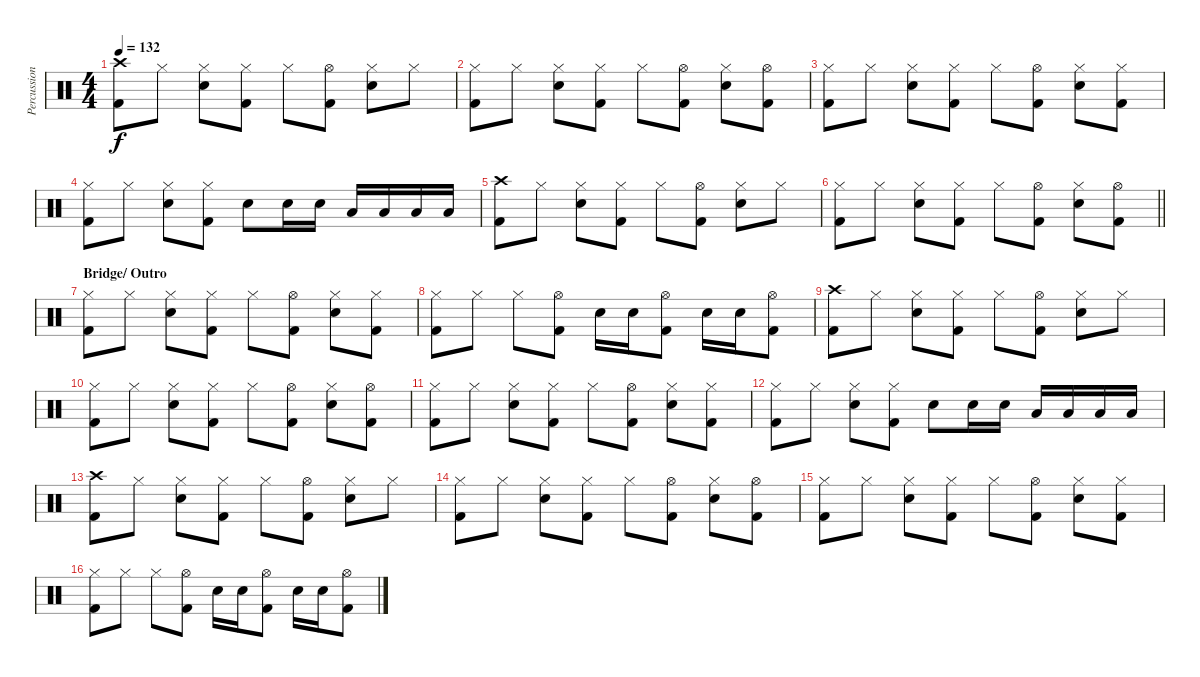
\track ("Percussioni" "Percussion") {instrument percussion}
\staff {score}
\articulation defaults
\ts (4 4)
\tempo 132
\clef neutral
\ks c
("Crash high (hit)" "Kick (hit) 2").8{dy f} "Hi-Hat (closed)".8 ("Hi-Hat (closed)" "Snare (hit) 2").8 ("Hi-Hat (closed)" "Kick (hit) 2").8 "Hi-Hat (closed)".8 ("Hi-Hat (open)" "Kick (hit) 2").8 ("Hi-Hat (closed)" "Snare (hit) 2").8 "Hi-Hat (closed)".8 |
("Hi-Hat (closed)" "Kick (hit) 2").8 "Hi-Hat (closed)".8 ("Hi-Hat (closed)" "Snare (hit) 2").8 ("Hi-Hat (closed)" "Kick (hit) 2").8 "Hi-Hat (closed)".8 ("Hi-Hat (open)" "Kick (hit) 2").8 ("Hi-Hat (closed)" "Snare (hit) 2").8 ("Hi-Hat (open)" "Kick (hit) 2").8 |
("Hi-Hat (closed)" "Kick (hit) 2").8 "Hi-Hat (closed)".8 ("Hi-Hat (closed)" "Snare (hit) 2").8 ("Hi-Hat (closed)" "Kick (hit) 2").8 "Hi-Hat (closed)".8 ("Hi-Hat (open)" "Kick (hit) 2").8 ("Hi-Hat (closed)" "Snare (hit) 2").8 ("Hi-Hat (closed)" "Kick (hit) 2").8 |
("Hi-Hat (closed)" "Kick (hit) 2").8 "Hi-Hat (closed)".8 ("Hi-Hat (closed)" "Snare (hit) 2").8 ("Hi-Hat (closed)" "Kick (hit) 2").8 "Snare (hit) 2".8 "Snare (hit) 2".16 "Snare (hit) 2".16 "Low Floor Tom (hit)".16 "Low Floor Tom (hit)".16 "Low Floor Tom (hit)".16 "Low Floor Tom (hit)".16 |
("Crash high (hit)" "Kick (hit) 2").8 "Hi-Hat (closed)".8 ("Hi-Hat (closed)" "Snare (hit) 2").8 ("Hi-Hat (closed)" "Kick (hit) 2").8 "Hi-Hat (closed)".8 ("Hi-Hat (open)" "Kick (hit) 2").8 ("Hi-Hat (closed)" "Snare (hit) 2").8 "Hi-Hat (closed)".8 |
\barLineRight lightlight
("Hi-Hat (closed)" "Kick (hit) 2").8 "Hi-Hat (closed)".8 ("Hi-Hat (closed)" "Snare (hit) 2").8 ("Hi-Hat (closed)" "Kick (hit) 2").8 "Hi-Hat (closed)".8 ("Hi-Hat (open)" "Kick (hit) 2").8 ("Hi-Hat (closed)" "Snare (hit) 2").8 ("Hi-Hat (open)" "Kick (hit) 2").8 |
\section ("" "Bridge/ Outro")
("Hi-Hat (closed)" "Kick (hit) 2").8 "Hi-Hat (closed)".8 ("Hi-Hat (closed)" "Snare (hit) 2").8 ("Hi-Hat (closed)" "Kick (hit) 2").8 "Hi-Hat (closed)".8 ("Hi-Hat (open)" "Kick (hit) 2").8 ("Hi-Hat (closed)" "Snare (hit) 2").8 ("Hi-Hat (closed)" "Kick (hit) 2").8 |
("Hi-Hat (closed)" "Kick (hit) 2").8 "Hi-Hat (closed)".8 "Hi-Hat (closed)".8 ("Hi-Hat (open)" "Kick (hit) 2").8 "Snare (hit) 2".16 "Snare (hit) 2".16 ("Hi-Hat (open)" "Kick (hit) 2").8 "Snare (hit) 2".16 "Snare (hit) 2".16 ("Hi-Hat (open)" "Kick (hit) 2").8 |
("Crash high (hit)" "Kick (hit) 2").8 "Hi-Hat (closed)".8 ("Hi-Hat (closed)" "Snare (hit) 2").8 ("Hi-Hat (closed)" "Kick (hit) 2").8 "Hi-Hat (closed)".8 ("Hi-Hat (open)" "Kick (hit) 2").8 ("Hi-Hat (closed)" "Snare (hit) 2").8 "Hi-Hat (closed)".8 |
("Hi-Hat (closed)" "Kick (hit) 2").8 "Hi-Hat (closed)".8 ("Hi-Hat (closed)" "Snare (hit) 2").8 ("Hi-Hat (closed)" "Kick (hit) 2").8 "Hi-Hat (closed)".8 ("Hi-Hat (open)" "Kick (hit) 2").8 ("Hi-Hat (closed)" "Snare (hit) 2").8 ("Hi-Hat (open)" "Kick (hit) 2").8 |
("Hi-Hat (closed)" "Kick (hit) 2").8 "Hi-Hat (closed)".8 ("Hi-Hat (closed)" "Snare (hit) 2").8 ("Hi-Hat (closed)" "Kick (hit) 2").8 "Hi-Hat (closed)".8 ("Hi-Hat (open)" "Kick (hit) 2").8 ("Hi-Hat (closed)" "Snare (hit) 2").8 ("Hi-Hat (closed)" "Kick (hit) 2").8 |
("Hi-Hat (closed)" "Kick (hit) 2").8 "Hi-Hat (closed)".8 ("Hi-Hat (closed)" "Snare (hit) 2").8 ("Hi-Hat (closed)" "Kick (hit) 2").8 "Snare (hit) 2".8 "Snare (hit) 2".16 "Snare (hit) 2".16 "Low Floor Tom (hit)".16 "Low Floor Tom (hit)".16 "Low Floor Tom (hit)".16 "Low Floor Tom (hit)".16 |
("Crash high (hit)" "Kick (hit) 2").8 "Hi-Hat (closed)".8 ("Hi-Hat (closed)" "Snare (hit) 2").8 ("Hi-Hat (closed)" "Kick (hit) 2").8 "Hi-Hat (closed)".8 ("Hi-Hat (open)" "Kick (hit) 2").8 ("Hi-Hat (closed)" "Snare (hit) 2").8 "Hi-Hat (closed)".8 |
("Hi-Hat (closed)" "Kick (hit) 2").8 "Hi-Hat (closed)".8 ("Hi-Hat (closed)" "Snare (hit) 2").8 ("Hi-Hat (closed)" "Kick (hit) 2").8 "Hi-Hat (closed)".8 ("Hi-Hat (open)" "Kick (hit) 2").8 ("Hi-Hat (closed)" "Snare (hit) 2").8 ("Hi-Hat (open)" "Kick (hit) 2").8 |
("Hi-Hat (closed)" "Kick (hit) 2").8 "Hi-Hat (closed)".8 ("Hi-Hat (closed)" "Snare (hit) 2").8 ("Hi-Hat (closed)" "Kick (hit) 2").8 "Hi-Hat (closed)".8 ("Hi-Hat (open)" "Kick (hit) 2").8 ("Hi-Hat (closed)" "Snare (hit) 2").8 ("Hi-Hat (closed)" "Kick (hit) 2").8 |
("Hi-Hat (closed)" "Kick (hit) 2").8 "Hi-Hat (closed)".8 "Hi-Hat (closed)".8 ("Hi-Hat (open)" "Kick (hit) 2").8 "Snare (hit) 2".16 "Snare (hit) 2".16 ("Hi-Hat (open)" "Kick (hit) 2").8 "Snare (hit) 2".16 "Snare (hit) 2".16 ("Hi-Hat (open)" "Kick (hit) 2").8
